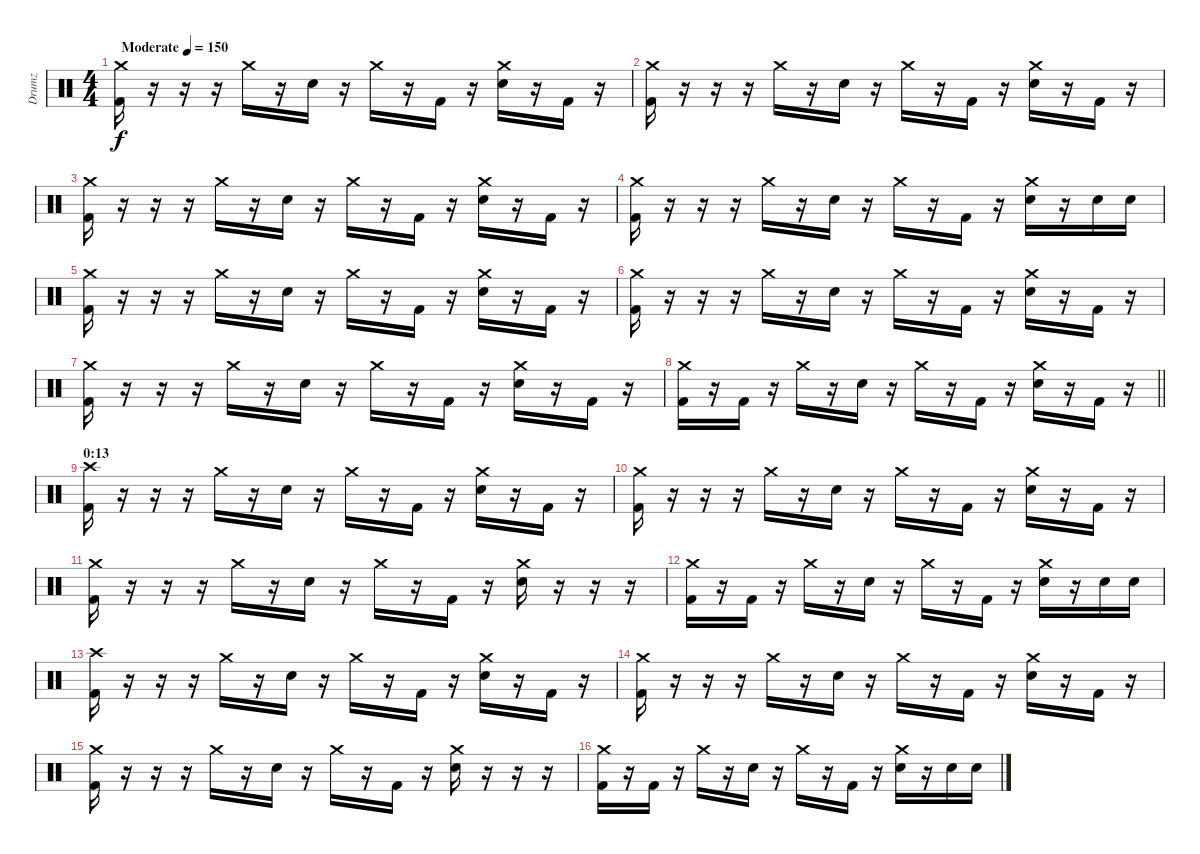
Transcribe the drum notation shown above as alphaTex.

\track ("Drumz" "Drumz") {instrument percussion}
\staff {score}
\articulation defaults
\ts (4 4)
\tempo (150 "Moderate")
\clef neutral
\ks c
("Crash medium (hit)" "Kick (hit) 2").16{dy f} r.16 r.16 r.16 "Crash medium (hit)".16 r.16 "Electric Snare (hit)".16 r.16 "Crash medium (hit)".16 r.16 "Kick (hit) 2".16 r.16 ("Crash medium (hit)" "Electric Snare (hit)").16 r.16 "Kick (hit) 2".16 r.16 |
("Crash medium (hit)" "Kick (hit) 2").16 r.16 r.16 r.16 "Crash medium (hit)".16 r.16 "Electric Snare (hit)".16 r.16 "Crash medium (hit)".16 r.16 "Kick (hit) 2".16 r.16 ("Crash medium (hit)" "Electric Snare (hit)").16 r.16 "Kick (hit) 2".16 r.16 |
("Crash medium (hit)" "Kick (hit) 2").16 r.16 r.16 r.16 "Crash medium (hit)".16 r.16 "Electric Snare (hit)".16 r.16 "Crash medium (hit)".16 r.16 "Kick (hit) 2".16 r.16 ("Crash medium (hit)" "Electric Snare (hit)").16 r.16 "Kick (hit) 2".16 r.16 |
("Crash medium (hit)" "Kick (hit) 2").16 r.16 r.16 r.16 "Crash medium (hit)".16 r.16 "Electric Snare (hit)".16 r.16 "Crash medium (hit)".16 r.16 "Kick (hit) 2".16 r.16 ("Crash medium (hit)" "Electric Snare (hit)").16 r.16 "Electric Snare (hit)".16 "Electric Snare (hit)".16 |
("Crash medium (hit)" "Kick (hit) 2").16 r.16 r.16 r.16 "Crash medium (hit)".16 r.16 "Electric Snare (hit)".16 r.16 "Crash medium (hit)".16 r.16 "Kick (hit) 2".16 r.16 ("Crash medium (hit)" "Electric Snare (hit)").16 r.16 "Kick (hit) 2".16 r.16 |
("Crash medium (hit)" "Kick (hit) 2").16 r.16 r.16 r.16 "Crash medium (hit)".16 r.16 "Electric Snare (hit)".16 r.16 "Crash medium (hit)".16 r.16 "Kick (hit) 2".16 r.16 ("Crash medium (hit)" "Electric Snare (hit)").16 r.16 "Kick (hit) 2".16 r.16 |
("Crash medium (hit)" "Kick (hit) 2").16 r.16 r.16 r.16 "Crash medium (hit)".16 r.16 "Electric Snare (hit)".16 r.16 "Crash medium (hit)".16 r.16 "Kick (hit) 2".16 r.16 ("Crash medium (hit)" "Electric Snare (hit)").16 r.16 "Kick (hit) 2".16 r.16 |
\barLineRight lightlight
("Crash medium (hit)" "Kick (hit) 2").16 r.16 "Kick (hit) 2".16 r.16 "Crash medium (hit)".16 r.16 "Electric Snare (hit)".16 r.16 "Crash medium (hit)".16 r.16 "Kick (hit) 2".16 r.16 ("Crash medium (hit)" "Electric Snare (hit)").16 r.16 "Kick (hit) 2".16 r.16 |
\section ("" "0:13")
("Crash high (hit)" "Kick (hit) 2").16 r.16 r.16 r.16 "Crash medium (hit)".16 r.16 "Electric Snare (hit)".16 r.16 "Crash medium (hit)".16 r.16 "Kick (hit) 2".16 r.16 ("Crash medium (hit)" "Electric Snare (hit)").16 r.16 "Kick (hit) 2".16 r.16 |
("Crash medium (hit)" "Kick (hit) 2").16 r.16 r.16 r.16 "Crash medium (hit)".16 r.16 "Electric Snare (hit)".16 r.16 "Crash medium (hit)".16 r.16 "Kick (hit) 2".16 r.16 ("Crash medium (hit)" "Electric Snare (hit)").16 r.16 "Kick (hit) 2".16 r.16 |
("Crash medium (hit)" "Kick (hit) 2").16 r.16 r.16 r.16 "Crash medium (hit)".16 r.16 "Electric Snare (hit)".16 r.16 "Crash medium (hit)".16 r.16 "Kick (hit) 2".16 r.16 ("Crash medium (hit)" "Electric Snare (hit)").16 r.16 r.16 r.16 |
("Crash medium (hit)" "Kick (hit) 2").16 r.16 "Kick (hit) 2".16 r.16 "Crash medium (hit)".16 r.16 "Electric Snare (hit)".16 r.16 "Crash medium (hit)".16 r.16 "Kick (hit) 2".16 r.16 ("Crash medium (hit)" "Electric Snare (hit)").16 r.16 "Electric Snare (hit)".16 "Electric Snare (hit)".16 |
("Crash high (hit)" "Kick (hit) 2").16 r.16 r.16 r.16 "Crash medium (hit)".16 r.16 "Electric Snare (hit)".16 r.16 "Crash medium (hit)".16 r.16 "Kick (hit) 2".16 r.16 ("Crash medium (hit)" "Electric Snare (hit)").16 r.16 "Kick (hit) 2".16 r.16 |
("Crash medium (hit)" "Kick (hit) 2").16 r.16 r.16 r.16 "Crash medium (hit)".16 r.16 "Electric Snare (hit)".16 r.16 "Crash medium (hit)".16 r.16 "Kick (hit) 2".16 r.16 ("Crash medium (hit)" "Electric Snare (hit)").16 r.16 "Kick (hit) 2".16 r.16 |
("Crash medium (hit)" "Kick (hit) 2").16 r.16 r.16 r.16 "Crash medium (hit)".16 r.16 "Electric Snare (hit)".16 r.16 "Crash medium (hit)".16 r.16 "Kick (hit) 2".16 r.16 ("Crash medium (hit)" "Electric Snare (hit)").16 r.16 r.16 r.16 |
("Crash medium (hit)" "Kick (hit) 2").16 r.16 "Kick (hit) 2".16 r.16 "Crash medium (hit)".16 r.16 "Electric Snare (hit)".16 r.16 "Crash medium (hit)".16 r.16 "Kick (hit) 2".16 r.16 ("Crash medium (hit)" "Electric Snare (hit)").16 r.16 "Electric Snare (hit)".16 "Electric Snare (hit)".16
